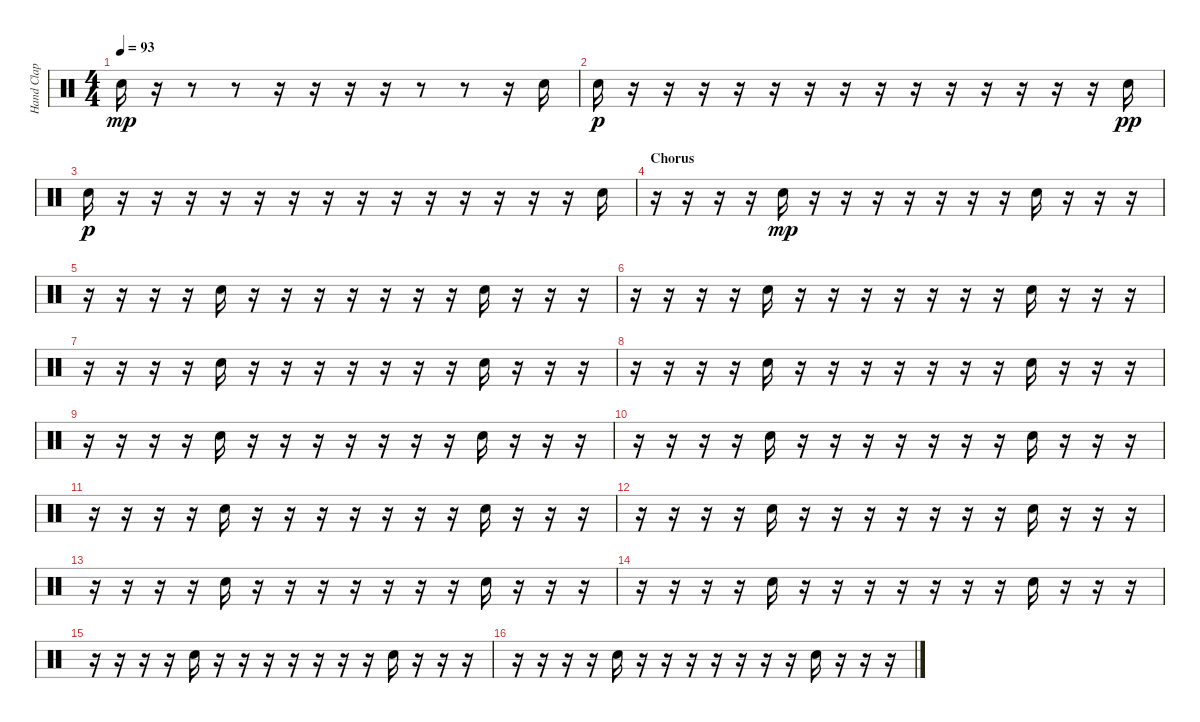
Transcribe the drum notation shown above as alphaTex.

\track ("Hand Clap" "Hand Clap") {instrument percussion}
\staff {score}
\articulation defaults
\ts (4 4)
\tempo 93
\clef neutral
\ks c "Hand Clap (hit)".16{dy mp}
r.16 r.8 r.8 r.16 r.16 r.16 r.16 r.8 r.8 r.16 "Hand Clap (hit)".16 |
"Hand Clap (hit)".16{dy p} r.16 r.16 r.16 r.16 r.16 r.16 r.16 r.16 r.16 r.16 r.16 r.16 r.16 r.16 "Hand Clap (hit)".16{dy pp} |
"Hand Clap (hit)".16{dy p} r.16 r.16 r.16 r.16 r.16 r.16 r.16 r.16 r.16 r.16 r.16 r.16 r.16 r.16 "Hand Clap (hit)".16 |
\section ("" "Chorus")
r.16 r.16 r.16 r.16 "Hand Clap (hit)".16{dy mp} r.16 r.16 r.16 r.16 r.16 r.16 r.16 "Hand Clap (hit)".16 r.16 r.16 r.16 |
r.16 r.16 r.16 r.16 "Hand Clap (hit)".16 r.16 r.16 r.16 r.16 r.16 r.16 r.16 "Hand Clap (hit)".16 r.16 r.16 r.16 |
r.16 r.16 r.16 r.16 "Hand Clap (hit)".16 r.16 r.16 r.16 r.16 r.16 r.16 r.16 "Hand Clap (hit)".16 r.16 r.16 r.16 |
r.16 r.16 r.16 r.16 "Hand Clap (hit)".16 r.16 r.16 r.16 r.16 r.16 r.16 r.16 "Hand Clap (hit)".16 r.16 r.16 r.16 |
r.16 r.16 r.16 r.16 "Hand Clap (hit)".16 r.16 r.16 r.16 r.16 r.16 r.16 r.16 "Hand Clap (hit)".16 r.16 r.16 r.16 |
r.16 r.16 r.16 r.16 "Hand Clap (hit)".16 r.16 r.16 r.16 r.16 r.16 r.16 r.16 "Hand Clap (hit)".16 r.16 r.16 r.16 |
r.16 r.16 r.16 r.16 "Hand Clap (hit)".16 r.16 r.16 r.16 r.16 r.16 r.16 r.16 "Hand Clap (hit)".16 r.16 r.16 r.16 |
r.16 r.16 r.16 r.16 "Hand Clap (hit)".16 r.16 r.16 r.16 r.16 r.16 r.16 r.16 "Hand Clap (hit)".16 r.16 r.16 r.16 |
r.16 r.16 r.16 r.16 "Hand Clap (hit)".16 r.16 r.16 r.16 r.16 r.16 r.16 r.16 "Hand Clap (hit)".16 r.16 r.16 r.16 |
r.16 r.16 r.16 r.16 "Hand Clap (hit)".16 r.16 r.16 r.16 r.16 r.16 r.16 r.16 "Hand Clap (hit)".16 r.16 r.16 r.16 |
r.16 r.16 r.16 r.16 "Hand Clap (hit)".16 r.16 r.16 r.16 r.16 r.16 r.16 r.16 "Hand Clap (hit)".16 r.16 r.16 r.16 |
r.16 r.16 r.16 r.16 "Hand Clap (hit)".16 r.16 r.16 r.16 r.16 r.16 r.16 r.16 "Hand Clap (hit)".16 r.16 r.16 r.16 |
r.16 r.16 r.16 r.16 "Hand Clap (hit)".16 r.16 r.16 r.16 r.16 r.16 r.16 r.16 "Hand Clap (hit)".16 r.16 r.16 r.16
